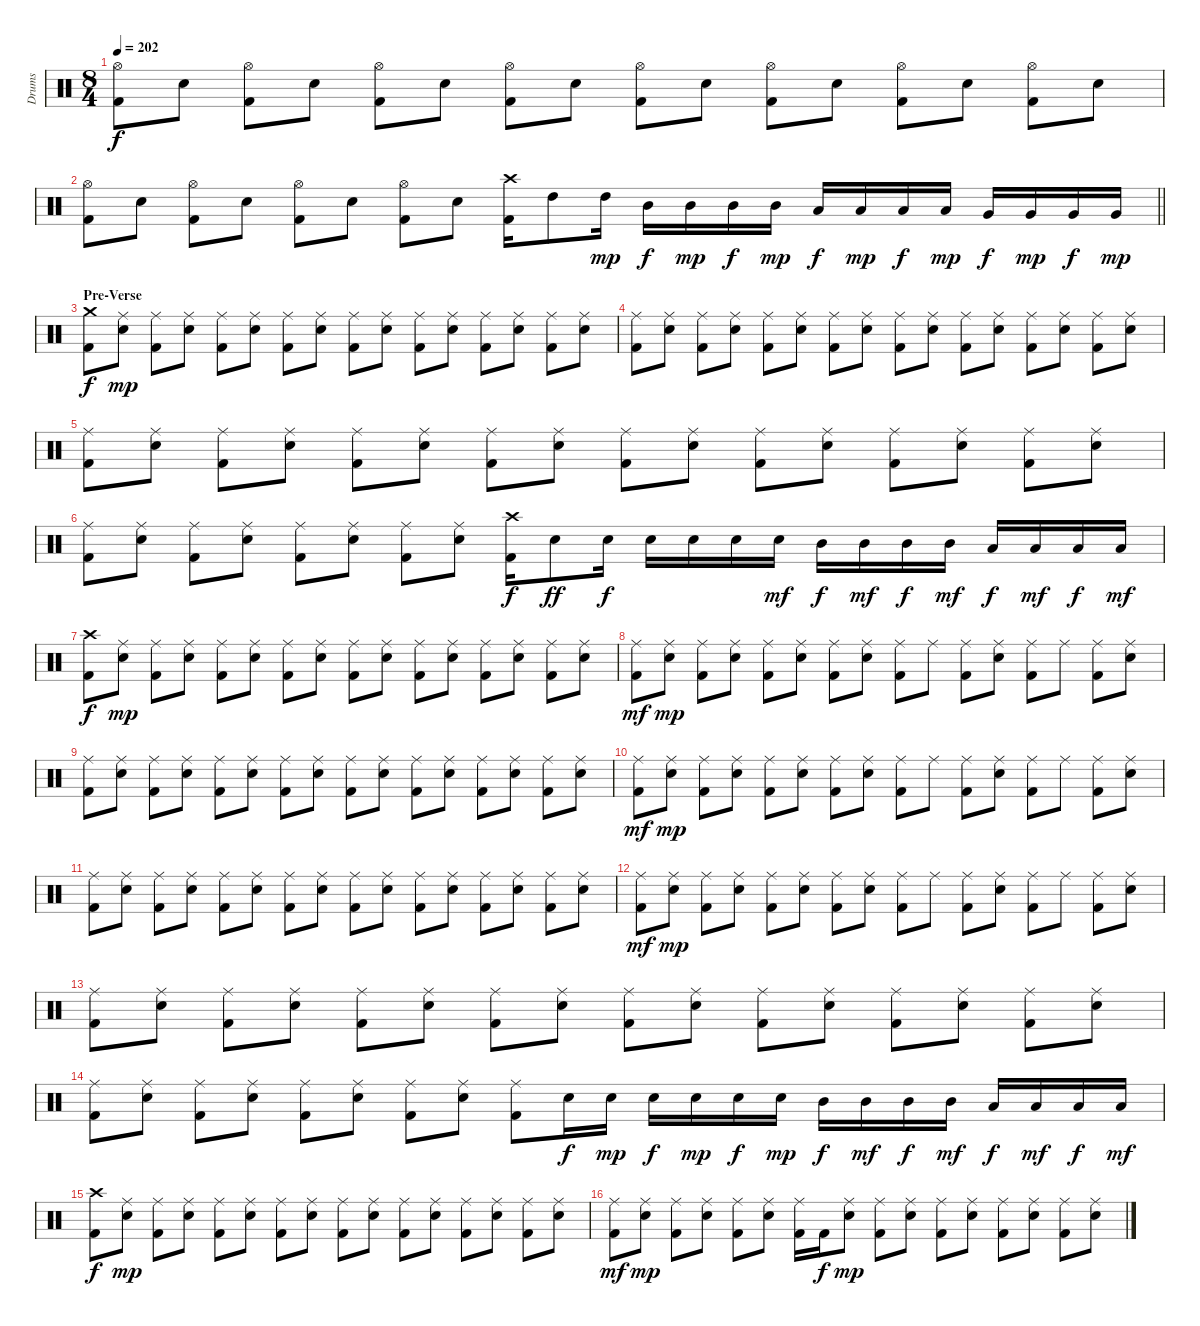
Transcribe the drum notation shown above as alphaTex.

\track ("Drums" "Drums") {instrument percussion}
\staff {score}
\articulation defaults
\ts (8 4)
\tempo 202
\clef neutral
\ks c
("Hi-Hat (open)" "Kick (hit) 2").8{dy f} "Snare (hit) 2".8 ("Hi-Hat (open)" "Kick (hit) 2").8 "Snare (hit) 2".8 ("Hi-Hat (open)" "Kick (hit) 2").8 "Snare (hit) 2".8 ("Hi-Hat (open)" "Kick (hit) 2").8 "Snare (hit) 2".8 ("Hi-Hat (open)" "Kick (hit) 2").8 "Snare (hit) 2".8 ("Hi-Hat (open)" "Kick (hit) 2").8 "Snare (hit) 2".8 ("Hi-Hat (open)" "Kick (hit) 2").8 "Snare (hit) 2".8 ("Hi-Hat (open)" "Kick (hit) 2").8 "Snare (hit) 2".8 |
\barLineRight lightlight
("Hi-Hat (open)" "Kick (hit) 2").8 "Snare (hit) 2".8 ("Hi-Hat (open)" "Kick (hit) 2").8 "Snare (hit) 2".8 ("Hi-Hat (open)" "Kick (hit) 2").8 "Snare (hit) 2".8 ("Hi-Hat (open)" "Kick (hit) 2").8 "Snare (hit) 2".8 ("Crash high (hit)" "Kick (hit) 2").16 "High Tom (hit)".8 "High Tom (hit)".16{dy mp} "Mid Tom (hit)".16{dy f} "Mid Tom (hit)".16{dy mp} "Mid Tom (hit)".16{dy f} "Mid Tom (hit)".16{dy mp} "Low Tom (hit)".16{dy f} "Low Tom (hit)".16{dy mp} "Low Tom (hit)".16{dy f} "Low Tom (hit)".16{dy mp} "Very Low Tom (hit)".16{dy f} "Very Low Tom (hit)".16{dy mp} "Very Low Tom (hit)".16{dy f} "Very Low Tom (hit)".16{dy mp} |
\section ("" "Pre-Verse")
("Crash medium (hit)" "Kick (hit) 2").8{dy f} ("Ride (middle)" "Snare (hit) 2").8{dy mp} ("Ride (middle)" "Kick (hit) 2").8 ("Ride (middle)" "Snare (hit) 2").8 ("Ride (middle)" "Kick (hit) 2").8 ("Ride (middle)" "Snare (hit) 2").8 ("Ride (middle)" "Kick (hit) 2").8 ("Ride (middle)" "Snare (hit) 2").8 ("Ride (middle)" "Kick (hit) 2").8 ("Ride (middle)" "Snare (hit) 2").8 ("Ride (middle)" "Kick (hit) 2").8 ("Ride (middle)" "Snare (hit) 2").8 ("Ride (middle)" "Kick (hit) 2").8 ("Ride (middle)" "Snare (hit) 2").8 ("Ride (middle)" "Kick (hit) 2").8 ("Ride (middle)" "Snare (hit) 2").8 |
("Ride (middle)" "Kick (hit) 2").8 ("Ride (middle)" "Snare (hit) 2").8 ("Ride (middle)" "Kick (hit) 2").8 ("Ride (middle)" "Snare (hit) 2").8 ("Ride (middle)" "Kick (hit) 2").8 ("Ride (middle)" "Snare (hit) 2").8 ("Ride (middle)" "Kick (hit) 2").8 ("Ride (middle)" "Snare (hit) 2").8 ("Ride (middle)" "Kick (hit) 2").8 ("Ride (middle)" "Snare (hit) 2").8 ("Ride (middle)" "Kick (hit) 2").8 ("Ride (middle)" "Snare (hit) 2").8 ("Ride (middle)" "Kick (hit) 2").8 ("Ride (middle)" "Snare (hit) 2").8 ("Ride (middle)" "Kick (hit) 2").8 ("Ride (middle)" "Snare (hit) 2").8 |
("Ride (middle)" "Kick (hit) 2").8 ("Ride (middle)" "Snare (hit) 2").8 ("Ride (middle)" "Kick (hit) 2").8 ("Ride (middle)" "Snare (hit) 2").8 ("Ride (middle)" "Kick (hit) 2").8 ("Ride (middle)" "Snare (hit) 2").8 ("Ride (middle)" "Kick (hit) 2").8 ("Ride (middle)" "Snare (hit) 2").8 ("Ride (middle)" "Kick (hit) 2").8 ("Ride (middle)" "Snare (hit) 2").8 ("Ride (middle)" "Kick (hit) 2").8 ("Ride (middle)" "Snare (hit) 2").8 ("Ride (middle)" "Kick (hit) 2").8 ("Ride (middle)" "Snare (hit) 2").8 ("Ride (middle)" "Kick (hit) 2").8 ("Ride (middle)" "Snare (hit) 2").8 |
("Ride (middle)" "Kick (hit) 2").8 ("Ride (middle)" "Snare (hit) 2").8 ("Ride (middle)" "Kick (hit) 2").8 ("Ride (middle)" "Snare (hit) 2").8 ("Ride (middle)" "Kick (hit) 2").8 ("Ride (middle)" "Snare (hit) 2").8 ("Ride (middle)" "Kick (hit) 2").8 ("Ride (middle)" "Snare (hit) 2").8 ("Crash high (hit)" "Kick (hit) 2").16{dy f} "Snare (hit) 2".8{dy ff} "Snare (hit) 2".16{dy f} "Snare (hit) 2".16 "Snare (hit) 2".16 "Snare (hit) 2".16 "Snare (hit) 2".16{dy mf} "Mid Tom (hit)".16{dy f} "Mid Tom (hit)".16{dy mf} "Mid Tom (hit)".16{dy f} "Mid Tom (hit)".16{dy mf} "Low Tom (hit)".16{dy f} "Low Tom (hit)".16{dy mf} "Low Tom (hit)".16{dy f} "Low Tom (hit)".16{dy mf} |
("Crash high (hit)" "Kick (hit) 2").8{dy f} ("Ride (middle)" "Snare (hit) 2").8{dy mp} ("Ride (middle)" "Kick (hit) 2").8 ("Ride (middle)" "Snare (hit) 2").8 ("Ride (middle)" "Kick (hit) 2").8 ("Ride (middle)" "Snare (hit) 2").8 ("Ride (middle)" "Kick (hit) 2").8 ("Ride (middle)" "Snare (hit) 2").8 ("Ride (middle)" "Kick (hit) 2").8 ("Ride (middle)" "Snare (hit) 2").8 ("Ride (middle)" "Kick (hit) 2").8 ("Ride (middle)" "Snare (hit) 2").8 ("Ride (middle)" "Kick (hit) 2").8 ("Ride (middle)" "Snare (hit) 2").8 ("Ride (middle)" "Kick (hit) 2").8 ("Ride (middle)" "Snare (hit) 2").8 |
("Ride (middle)" "Kick (hit) 2").8{dy mf} ("Ride (middle)" "Snare (hit) 2").8{dy mp} ("Ride (middle)" "Kick (hit) 2").8 ("Ride (middle)" "Snare (hit) 2").8 ("Ride (middle)" "Kick (hit) 2").8 ("Ride (middle)" "Snare (hit) 2").8 ("Ride (middle)" "Kick (hit) 2").8 ("Ride (middle)" "Snare (hit) 2").8 ("Ride (middle)" "Kick (hit) 2").8 "Ride (middle)".8 ("Ride (middle)" "Kick (hit) 2").8 ("Ride (middle)" "Snare (hit) 2").8 ("Ride (middle)" "Kick (hit) 2").8 "Ride (middle)".8 ("Ride (middle)" "Kick (hit) 2").8 ("Ride (middle)" "Snare (hit) 2").8 |
("Ride (middle)" "Kick (hit) 2").8 ("Ride (middle)" "Snare (hit) 2").8 ("Ride (middle)" "Kick (hit) 2").8 ("Ride (middle)" "Snare (hit) 2").8 ("Ride (middle)" "Kick (hit) 2").8 ("Ride (middle)" "Snare (hit) 2").8 ("Ride (middle)" "Kick (hit) 2").8 ("Ride (middle)" "Snare (hit) 2").8 ("Ride (middle)" "Kick (hit) 2").8 ("Ride (middle)" "Snare (hit) 2").8 ("Ride (middle)" "Kick (hit) 2").8 ("Ride (middle)" "Snare (hit) 2").8 ("Ride (middle)" "Kick (hit) 2").8 ("Ride (middle)" "Snare (hit) 2").8 ("Ride (middle)" "Kick (hit) 2").8 ("Ride (middle)" "Snare (hit) 2").8 |
("Ride (middle)" "Kick (hit) 2").8{dy mf} ("Ride (middle)" "Snare (hit) 2").8{dy mp} ("Ride (middle)" "Kick (hit) 2").8 ("Ride (middle)" "Snare (hit) 2").8 ("Ride (middle)" "Kick (hit) 2").8 ("Ride (middle)" "Snare (hit) 2").8 ("Ride (middle)" "Kick (hit) 2").8 ("Ride (middle)" "Snare (hit) 2").8 ("Ride (middle)" "Kick (hit) 2").8 "Ride (middle)".8 ("Ride (middle)" "Kick (hit) 2").8 ("Ride (middle)" "Snare (hit) 2").8 ("Ride (middle)" "Kick (hit) 2").8 "Ride (middle)".8 ("Ride (middle)" "Kick (hit) 2").8 ("Ride (middle)" "Snare (hit) 2").8 |
("Ride (middle)" "Kick (hit) 2").8 ("Ride (middle)" "Snare (hit) 2").8 ("Ride (middle)" "Kick (hit) 2").8 ("Ride (middle)" "Snare (hit) 2").8 ("Ride (middle)" "Kick (hit) 2").8 ("Ride (middle)" "Snare (hit) 2").8 ("Ride (middle)" "Kick (hit) 2").8 ("Ride (middle)" "Snare (hit) 2").8 ("Ride (middle)" "Kick (hit) 2").8 ("Ride (middle)" "Snare (hit) 2").8 ("Ride (middle)" "Kick (hit) 2").8 ("Ride (middle)" "Snare (hit) 2").8 ("Ride (middle)" "Kick (hit) 2").8 ("Ride (middle)" "Snare (hit) 2").8 ("Ride (middle)" "Kick (hit) 2").8 ("Ride (middle)" "Snare (hit) 2").8 |
("Ride (middle)" "Kick (hit) 2").8{dy mf} ("Ride (middle)" "Snare (hit) 2").8{dy mp} ("Ride (middle)" "Kick (hit) 2").8 ("Ride (middle)" "Snare (hit) 2").8 ("Ride (middle)" "Kick (hit) 2").8 ("Ride (middle)" "Snare (hit) 2").8 ("Ride (middle)" "Kick (hit) 2").8 ("Ride (middle)" "Snare (hit) 2").8 ("Ride (middle)" "Kick (hit) 2").8 "Ride (middle)".8 ("Ride (middle)" "Kick (hit) 2").8 ("Ride (middle)" "Snare (hit) 2").8 ("Ride (middle)" "Kick (hit) 2").8 "Ride (middle)".8 ("Ride (middle)" "Kick (hit) 2").8 ("Ride (middle)" "Snare (hit) 2").8 |
("Ride (middle)" "Kick (hit) 2").8 ("Ride (middle)" "Snare (hit) 2").8 ("Ride (middle)" "Kick (hit) 2").8 ("Ride (middle)" "Snare (hit) 2").8 ("Ride (middle)" "Kick (hit) 2").8 ("Ride (middle)" "Snare (hit) 2").8 ("Ride (middle)" "Kick (hit) 2").8 ("Ride (middle)" "Snare (hit) 2").8 ("Ride (middle)" "Kick (hit) 2").8 ("Ride (middle)" "Snare (hit) 2").8 ("Ride (middle)" "Kick (hit) 2").8 ("Ride (middle)" "Snare (hit) 2").8 ("Ride (middle)" "Kick (hit) 2").8 ("Ride (middle)" "Snare (hit) 2").8 ("Ride (middle)" "Kick (hit) 2").8 ("Ride (middle)" "Snare (hit) 2").8 |
("Ride (middle)" "Kick (hit) 2").8 ("Ride (middle)" "Snare (hit) 2").8 ("Ride (middle)" "Kick (hit) 2").8 ("Ride (middle)" "Snare (hit) 2").8 ("Ride (middle)" "Kick (hit) 2").8 ("Ride (middle)" "Snare (hit) 2").8 ("Ride (middle)" "Kick (hit) 2").8 ("Ride (middle)" "Snare (hit) 2").8 ("Ride (middle)" "Kick (hit) 2").8 "Snare (hit) 2".16{dy f} "Snare (hit) 2".16{dy mp} "Snare (hit) 2".16{dy f} "Snare (hit) 2".16{dy mp} "Snare (hit) 2".16{dy f} "Snare (hit) 2".16{dy mp} "Mid Tom (hit)".16{dy f} "Mid Tom (hit)".16{dy mf} "Mid Tom (hit)".16{dy f} "Mid Tom (hit)".16{dy mf} "Low Tom (hit)".16{dy f} "Low Tom (hit)".16{dy mf} "Low Tom (hit)".16{dy f} "Low Tom (hit)".16{dy mf} |
("Crash high (hit)" "Kick (hit) 2").8{dy f} ("Ride (middle)" "Snare (hit) 2").8{dy mp} ("Ride (middle)" "Kick (hit) 2").8 ("Ride (middle)" "Snare (hit) 2").8 ("Ride (middle)" "Kick (hit) 2").8 ("Ride (middle)" "Snare (hit) 2").8 ("Ride (middle)" "Kick (hit) 2").8 ("Ride (middle)" "Snare (hit) 2").8 ("Ride (middle)" "Kick (hit) 2").8 ("Ride (middle)" "Snare (hit) 2").8 ("Ride (middle)" "Kick (hit) 2").8 ("Ride (middle)" "Snare (hit) 2").8 ("Ride (middle)" "Kick (hit) 2").8 ("Ride (middle)" "Snare (hit) 2").8 ("Ride (middle)" "Kick (hit) 2").8 ("Ride (middle)" "Snare (hit) 2").8 |
("Ride (middle)" "Kick (hit) 2").8{dy mf} ("Ride (middle)" "Snare (hit) 2").8{dy mp} ("Ride (middle)" "Kick (hit) 2").8 ("Ride (middle)" "Snare (hit) 2").8 ("Ride (middle)" "Kick (hit) 2").8 ("Ride (middle)" "Snare (hit) 2").8 ("Ride (middle)" "Kick (hit) 2").16 "Kick (hit) 2".16{dy f} ("Ride (middle)" "Snare (hit) 2").8{dy mp} ("Ride (middle)" "Kick (hit) 2").8 ("Ride (middle)" "Snare (hit) 2").8 ("Ride (middle)" "Kick (hit) 2").8 ("Ride (middle)" "Snare (hit) 2").8 ("Ride (middle)" "Kick (hit) 2").8 ("Ride (middle)" "Snare (hit) 2").8 ("Ride (middle)" "Kick (hit) 2").8 ("Ride (middle)" "Snare (hit) 2").8
